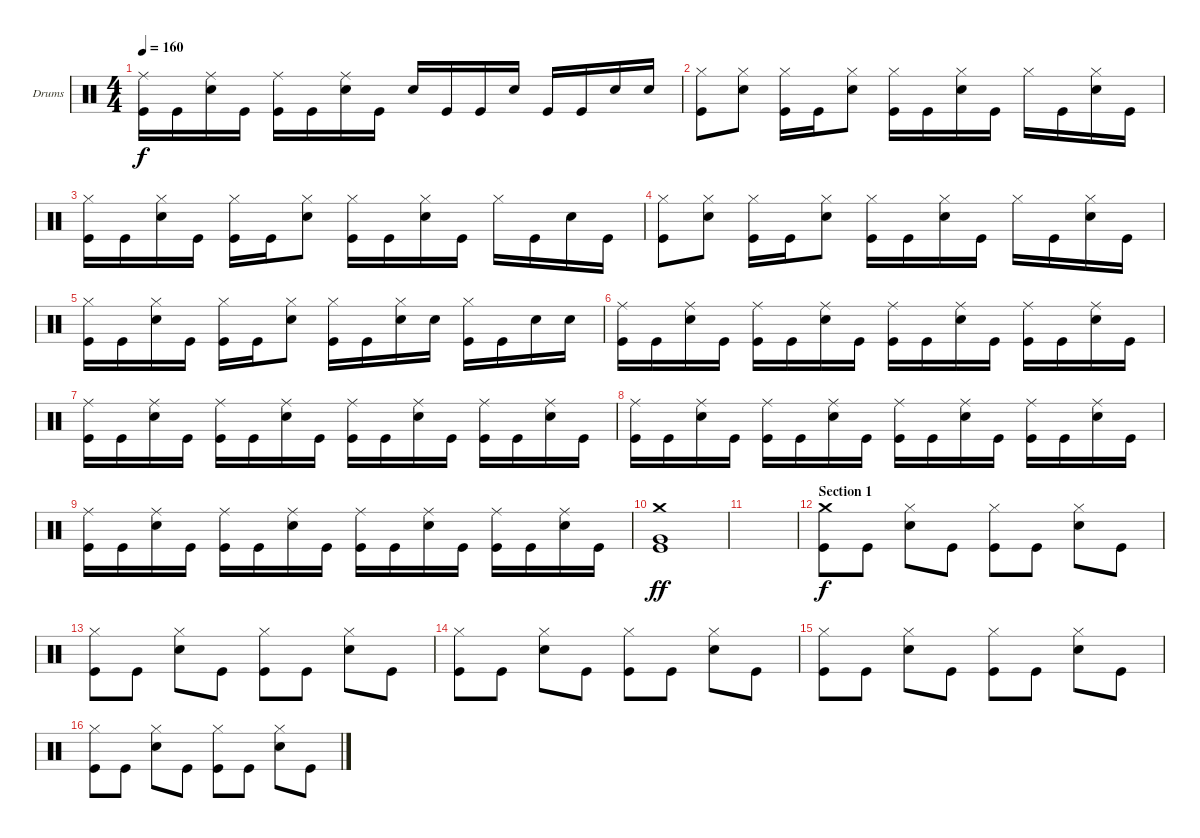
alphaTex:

\defaultSystemsLayout 4
\bracketExtendMode groupsimilarinstruments
\firstSystemTrackNameOrientation horizontal
\otherSystemsTrackNameOrientation horizontal
\track ("Drums" "Drums") {instrument percussion}
\staff {score}
\articulation defaults
\ts (4 4)
\tempo 160
\clef neutral
\scale
0.333333
\ks aminor
("Kick (hit)" "Ride (middle)").16{dy f} "Kick (hit)".16 ("Snare (hit) 2" "Ride (middle)").16 "Kick (hit)".16 ("Kick (hit)" "Ride (middle)").16 "Kick (hit)".16 ("Snare (hit) 2" "Ride (middle)").16 "Kick (hit)".16 "Snare (hit) 2".16 "Kick (hit)".16 "Kick (hit)".16 "Snare (hit) 2".16 "Kick (hit)".16 "Kick (hit)".16 "Snare (hit) 2".16 "Snare (hit) 2".16 |
\scale
0.333333 ("Kick (hit)" "Hi-Hat (closed)").8 ("Snare (hit) 2" "Hi-Hat (closed)").8 ("Kick (hit)" "Hi-Hat (closed)").16 "Kick (hit)".16 ("Snare (hit) 2" "Hi-Hat (closed)").8 ("Kick (hit)" "Hi-Hat (closed)").16 "Kick (hit)".16 ("Snare (hit) 2" "Hi-Hat (closed)").16 "Kick (hit)".16 "Hi-Hat (closed)".16 "Kick (hit)".16 ("Snare (hit) 2" "Hi-Hat (closed)").16 "Kick (hit)".16 |
\scale
0.333333 ("Kick (hit)" "Hi-Hat (closed)").16 "Kick (hit)".16 ("Snare (hit) 2" "Hi-Hat (closed)").16 "Kick (hit)".16 ("Kick (hit)" "Hi-Hat (closed)").16 "Kick (hit)".16 ("Snare (hit) 2" "Hi-Hat (closed)").8 ("Kick (hit)" "Hi-Hat (closed)").16 "Kick (hit)".16 ("Snare (hit) 2" "Hi-Hat (closed)").16 "Kick (hit)".16 "Hi-Hat (closed)".16 "Kick (hit)".16 "Snare (hit) 2".16 "Kick (hit)".16 |
\scale
0.333333 ("Kick (hit)" "Hi-Hat (closed)").8 ("Snare (hit) 2" "Hi-Hat (closed)").8 ("Kick (hit)" "Hi-Hat (closed)").16 "Kick (hit)".16 ("Snare (hit) 2" "Hi-Hat (closed)").8 ("Kick (hit)" "Hi-Hat (closed)").16 "Kick (hit)".16 ("Snare (hit) 2" "Hi-Hat (closed)").16 "Kick (hit)".16 "Hi-Hat (closed)".16 "Kick (hit)".16 ("Snare (hit) 2" "Hi-Hat (closed)").16 "Kick (hit)".16 |
\scale
0.333333 ("Kick (hit)" "Hi-Hat (closed)").16 "Kick (hit)".16 ("Snare (hit) 2" "Hi-Hat (closed)").16 "Kick (hit)".16 ("Kick (hit)" "Hi-Hat (closed)").16 "Kick (hit)".16 ("Snare (hit) 2" "Hi-Hat (closed)").8 ("Kick (hit)" "Hi-Hat (closed)").16 "Kick (hit)".16 ("Snare (hit) 2" "Hi-Hat (closed)").16 "Snare (hit) 2".16 ("Hi-Hat (closed)" "Kick (hit)").16 "Kick (hit)".16 "Snare (hit) 2".16 "Snare (hit) 2".16 |
\scale
0.333333 ("Kick (hit)" "Ride (middle)").16 "Kick (hit)".16 ("Snare (hit) 2" "Ride (middle)").16 "Kick (hit)".16 ("Kick (hit)" "Ride (middle)").16 "Kick (hit)".16 ("Snare (hit) 2" "Ride (middle)").16 "Kick (hit)".16 ("Kick (hit)" "Ride (middle)").16 "Kick (hit)".16 ("Snare (hit) 2" "Ride (middle)").16 "Kick (hit)".16 ("Kick (hit)" "Ride (middle)").16 "Kick (hit)".16 ("Snare (hit) 2" "Ride (middle)").16 "Kick (hit)".16 |
\scale
0.333333 ("Kick (hit)" "Ride (middle)").16 "Kick (hit)".16 ("Snare (hit) 2" "Ride (middle)").16 "Kick (hit)".16 ("Kick (hit)" "Ride (middle)").16 "Kick (hit)".16 ("Snare (hit) 2" "Ride (middle)").16 "Kick (hit)".16 ("Kick (hit)" "Ride (middle)").16 "Kick (hit)".16 ("Snare (hit) 2" "Ride (middle)").16 "Kick (hit)".16 ("Kick (hit)" "Ride (middle)").16 "Kick (hit)".16 ("Snare (hit) 2" "Ride (middle)").16 "Kick (hit)".16 |
\scale
0.333333 ("Kick (hit)" "Ride (middle)").16 "Kick (hit)".16 ("Snare (hit) 2" "Ride (middle)").16 "Kick (hit)".16 ("Kick (hit)" "Ride (middle)").16 "Kick (hit)".16 ("Snare (hit) 2" "Ride (middle)").16 "Kick (hit)".16 ("Kick (hit)" "Ride (middle)").16 "Kick (hit)".16 ("Snare (hit) 2" "Ride (middle)").16 "Kick (hit)".16 ("Kick (hit)" "Ride (middle)").16 "Kick (hit)".16 ("Snare (hit) 2" "Ride (middle)").16 "Kick (hit)".16 |
\scale
0.333333 ("Kick (hit)" "Ride (middle)").16 "Kick (hit)".16 ("Snare (hit) 2" "Ride (middle)").16 "Kick (hit)".16 ("Kick (hit)" "Ride (middle)").16 "Kick (hit)".16 ("Snare (hit) 2" "Ride (middle)").16 "Kick (hit)".16 ("Kick (hit)" "Ride (middle)").16 "Kick (hit)".16 ("Snare (hit) 2" "Ride (middle)").16 "Kick (hit)".16 ("Kick (hit)" "Ride (middle)").16 "Kick (hit)".16 ("Snare (hit) 2" "Ride (middle)").16 "Kick (hit)".16 |
\scale
0.333333 ("Very Low Tom (hit)" "Crash medium (hit)" "Kick (hit)").1{dy ff} |
\scale
0.333333 |
\section ("" "Section 1")
\scale
0.495575 ("Kick (hit)" "Crash medium (hit)").8{dy f} "Kick (hit)".8 ("Snare (hit) 2" "Hi-Hat (closed)").8 "Kick (hit)".8 ("Kick (hit)" "Hi-Hat (closed)").8 "Kick (hit)".8 ("Snare (hit) 2" "Hi-Hat (closed)").8 "Kick (hit)".8 |
\scale
0.252212 ("Kick (hit)" "Hi-Hat (closed)").8 "Kick (hit)".8 ("Snare (hit) 2" "Hi-Hat (closed)").8 "Kick (hit)".8 ("Kick (hit)" "Hi-Hat (closed)").8 "Kick (hit)".8 ("Snare (hit) 2" "Hi-Hat (closed)").8 "Kick (hit)".8 |
\scale
0.252212 ("Kick (hit)" "Hi-Hat (closed)").8 "Kick (hit)".8 ("Snare (hit) 2" "Hi-Hat (closed)").8 "Kick (hit)".8 ("Kick (hit)" "Hi-Hat (closed)").8 "Kick (hit)".8 ("Snare (hit) 2" "Hi-Hat (closed)").8 "Kick (hit)".8 |
\scale
0.333333 ("Kick (hit)" "Hi-Hat (closed)").8 "Kick (hit)".8 ("Snare (hit) 2" "Hi-Hat (closed)").8 "Kick (hit)".8 ("Kick (hit)" "Hi-Hat (closed)").8 "Kick (hit)".8 ("Snare (hit) 2" "Hi-Hat (closed)").8 "Kick (hit)".8 |
\scale
0.333333 ("Kick (hit)" "Hi-Hat (closed)").8 "Kick (hit)".8 ("Snare (hit) 2" "Hi-Hat (closed)").8 "Kick (hit)".8 ("Kick (hit)" "Hi-Hat (closed)").8 "Kick (hit)".8 ("Snare (hit) 2" "Hi-Hat (closed)").8 "Kick (hit)".8
